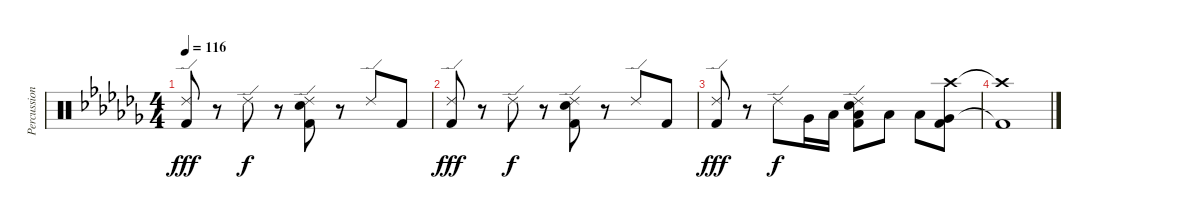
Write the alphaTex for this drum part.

\track ("Percussions" "Percussion") {instrument percussion}
\staff {score}
\articulation defaults
\ts (4 4)
\tempo 116
\clef neutral
\ks abminor
("Ride (edge) 2" "Kick (hit) 2").8{dy fff} r.8 "Ride (edge) 2".8{dy f} r.8 ("Ride (edge) 2" "Snare (hit) 2" "Kick (hit) 2").8 r.8 "Ride (edge) 2".8 "Kick (hit) 2".8 |
("Ride (edge) 2" "Kick (hit) 2").8{dy fff} r.8 "Ride (edge) 2".8{dy f} r.8 ("Ride (edge) 2" "Snare (hit) 2" "Kick (hit) 2").8 r.8 "Ride (edge) 2".8 "Kick (hit) 2".8 |
("Ride (edge) 2" "Kick (hit) 2").8{dy fff} r.8 "Ride (edge) 2".8{dy f} "Very Low Tom (hit)".16 "Low Floor Tom (hit)".16 ("Ride (edge) 2" "Low Floor Tom (hit)" "Snare (hit) 2" "Kick (hit) 2").8 "Low Floor Tom (hit)".8 "Low Floor Tom (hit)".8 ("Crash high (hit)" "Very Low Tom (hit)" "Kick (hit) 2").8 |
("Crash high (hit)"{t} "Kick (hit) 2"{t}).1
